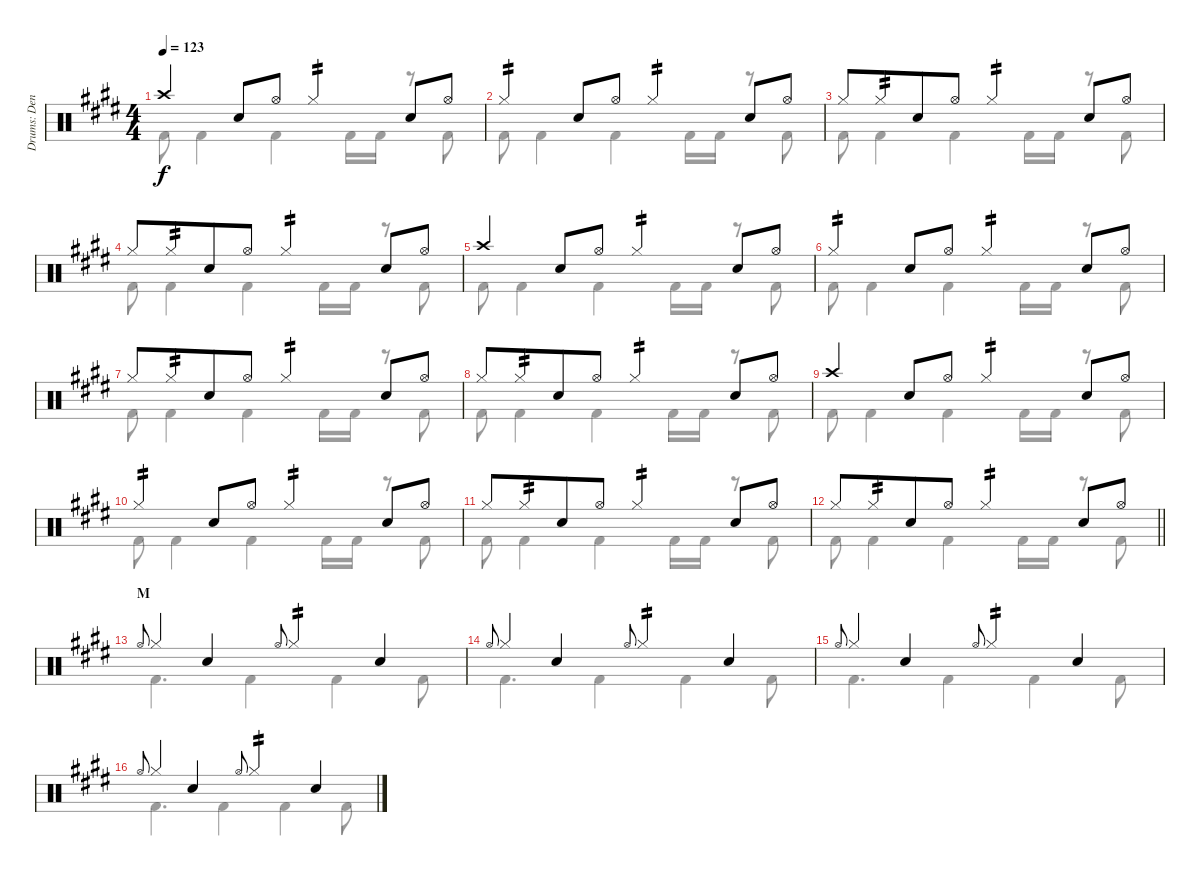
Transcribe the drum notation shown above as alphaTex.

\track ("Drums: Denny" "Drums: Den") {instrument percussion}
\staff {score}
\articulation defaults
\voice
\ts (4 4)
\tempo 123
\clef neutral
\ks e "Crash high (hit)".4{dy f} "Snare (hit) 2".8 "Hi-Hat (open)".8 "Hi-Hat (closed)".4{tp 2} "Snare (hit) 2".8 "Hi-Hat (open)".8
|
"Hi-Hat (closed)".4{tp 2} "Snare (hit) 2".8 "Hi-Hat (open)".8 "Hi-Hat (closed)".4{tp 2} "Snare (hit) 2".8 "Hi-Hat (open)".8 |
"Hi-Hat (closed)".8 "Hi-Hat (closed)".8{tp 2 beam merge} "Snare (hit) 2".8 "Hi-Hat (open)".8 "Hi-Hat (closed)".4{tp 2} "Snare (hit) 2".8 "Hi-Hat (open)".8 |
"Hi-Hat (closed)".8 "Hi-Hat (closed)".8{tp 2 beam merge} "Snare (hit) 2".8 "Hi-Hat (open)".8 "Hi-Hat (closed)".4{tp 2} "Snare (hit) 2".8 "Hi-Hat (open)".8 |
"Crash high (hit)".4 "Snare (hit) 2".8 "Hi-Hat (open)".8 "Hi-Hat (closed)".4{tp 2} "Snare (hit) 2".8 "Hi-Hat (open)".8 |
"Hi-Hat (closed)".4{tp 2} "Snare (hit) 2".8 "Hi-Hat (open)".8 "Hi-Hat (closed)".4{tp 2} "Snare (hit) 2".8 "Hi-Hat (open)".8 |
"Hi-Hat (closed)".8 "Hi-Hat (closed)".8{tp 2 beam merge} "Snare (hit) 2".8 "Hi-Hat (open)".8 "Hi-Hat (closed)".4{tp 2} "Snare (hit) 2".8 "Hi-Hat (open)".8 |
"Hi-Hat (closed)".8 "Hi-Hat (closed)".8{tp 2 beam merge} "Snare (hit) 2".8 "Hi-Hat (open)".8 "Hi-Hat (closed)".4{tp 2} "Snare (hit) 2".8 "Hi-Hat (open)".8 |
"Crash high (hit)".4 "Snare (hit) 2".8 "Hi-Hat (open)".8 "Hi-Hat (closed)".4{tp 2} "Snare (hit) 2".8 "Hi-Hat (open)".8 |
"Hi-Hat (closed)".4{tp 2} "Snare (hit) 2".8 "Hi-Hat (open)".8 "Hi-Hat (closed)".4{tp 2} "Snare (hit) 2".8 "Hi-Hat (open)".8 |
"Hi-Hat (closed)".8 "Hi-Hat (closed)".8{tp 2 beam merge} "Snare (hit) 2".8 "Hi-Hat (open)".8 "Hi-Hat (closed)".4{tp 2} "Snare (hit) 2".8 "Hi-Hat (open)".8 |
\barLineRight lightlight "Hi-Hat (closed)".8 "Hi-Hat (closed)".8{tp 2 beam merge} "Snare (hit) 2".8 "Hi-Hat (open)".8 "Hi-Hat (closed)".4{tp 2} "Snare (hit) 2".8 "Hi-Hat (open)".8
|
\section ("" "M")
"Hi-Hat (open)".8{gr onbeat} "Hi-Hat (closed)".4 "Snare (hit) 2".4 "Hi-Hat (open)".8{gr onbeat} "Hi-Hat (closed)".4{tp 2} "Snare (hit) 2".4 |
"Hi-Hat (open)".8{gr onbeat} "Hi-Hat (closed)".4 "Snare (hit) 2".4 "Hi-Hat (open)".8{gr onbeat} "Hi-Hat (closed)".4{tp 2} "Snare (hit) 2".4 |
"Hi-Hat (open)".8{gr onbeat} "Hi-Hat (closed)".4 "Snare (hit) 2".4 "Hi-Hat (open)".8{gr onbeat} "Hi-Hat (closed)".4{tp 2} "Snare (hit) 2".4 |
"Hi-Hat (open)".8{gr onbeat} "Hi-Hat (closed)".4 "Snare (hit) 2".4 "Hi-Hat (open)".8{gr onbeat} "Hi-Hat (closed)".4{tp 2} "Snare (hit) 2".4
\voice
\clef neutral
\ottava regular
\simile none
\ks e "Kick (hit) 2".8{dy f} "Kick (hit) 2".4 "Kick (hit) 2".4 "Kick (hit) 2".16 "Kick (hit) 2".16
r.8 "Kick (hit) 2".8 |
"Kick (hit) 2".8 "Kick (hit) 2".4 "Kick (hit) 2".4 "Kick (hit) 2".16 "Kick (hit) 2".16 r.8 "Kick (hit) 2".8 |
"Kick (hit) 2".8 "Kick (hit) 2".4 "Kick (hit) 2".4 "Kick (hit) 2".16 "Kick (hit) 2".16 r.8 "Kick (hit) 2".8 |
"Kick (hit) 2".8 "Kick (hit) 2".4 "Kick (hit) 2".4 "Kick (hit) 2".16 "Kick (hit) 2".16 r.8 "Kick (hit) 2".8 |
"Kick (hit) 2".8 "Kick (hit) 2".4 "Kick (hit) 2".4 "Kick (hit) 2".16 "Kick (hit) 2".16 r.8 "Kick (hit) 2".8 |
"Kick (hit) 2".8 "Kick (hit) 2".4 "Kick (hit) 2".4 "Kick (hit) 2".16 "Kick (hit) 2".16 r.8 "Kick (hit) 2".8 |
"Kick (hit) 2".8 "Kick (hit) 2".4 "Kick (hit) 2".4 "Kick (hit) 2".16 "Kick (hit) 2".16 r.8 "Kick (hit) 2".8 |
"Kick (hit) 2".8 "Kick (hit) 2".4 "Kick (hit) 2".4 "Kick (hit) 2".16 "Kick (hit) 2".16 r.8 "Kick (hit) 2".8 |
"Kick (hit) 2".8 "Kick (hit) 2".4 "Kick (hit) 2".4 "Kick (hit) 2".16 "Kick (hit) 2".16 r.8 "Kick (hit) 2".8 |
"Kick (hit) 2".8 "Kick (hit) 2".4 "Kick (hit) 2".4 "Kick (hit) 2".16 "Kick (hit) 2".16 r.8 "Kick (hit) 2".8 |
"Kick (hit) 2".8 "Kick (hit) 2".4 "Kick (hit) 2".4 "Kick (hit) 2".16 "Kick (hit) 2".16 r.8 "Kick (hit) 2".8 |
\barLineRight lightlight "Kick (hit) 2".8 "Kick (hit) 2".4 "Kick (hit) 2".4 "Kick (hit) 2".16 "Kick (hit) 2".16
r.8 "Kick (hit) 2".8 |
"Kick (hit) 2".4{d} "Kick (hit) 2".4 "Kick (hit) 2".4 "Kick (hit) 2".8 |
"Kick (hit) 2".4{d} "Kick (hit) 2".4 "Kick (hit) 2".4 "Kick (hit) 2".8 |
"Kick (hit) 2".4{d} "Kick (hit) 2".4 "Kick (hit) 2".4 "Kick (hit) 2".8 |
"Kick (hit) 2".4{d} "Kick (hit) 2".4 "Kick (hit) 2".4 "Kick (hit) 2".8
